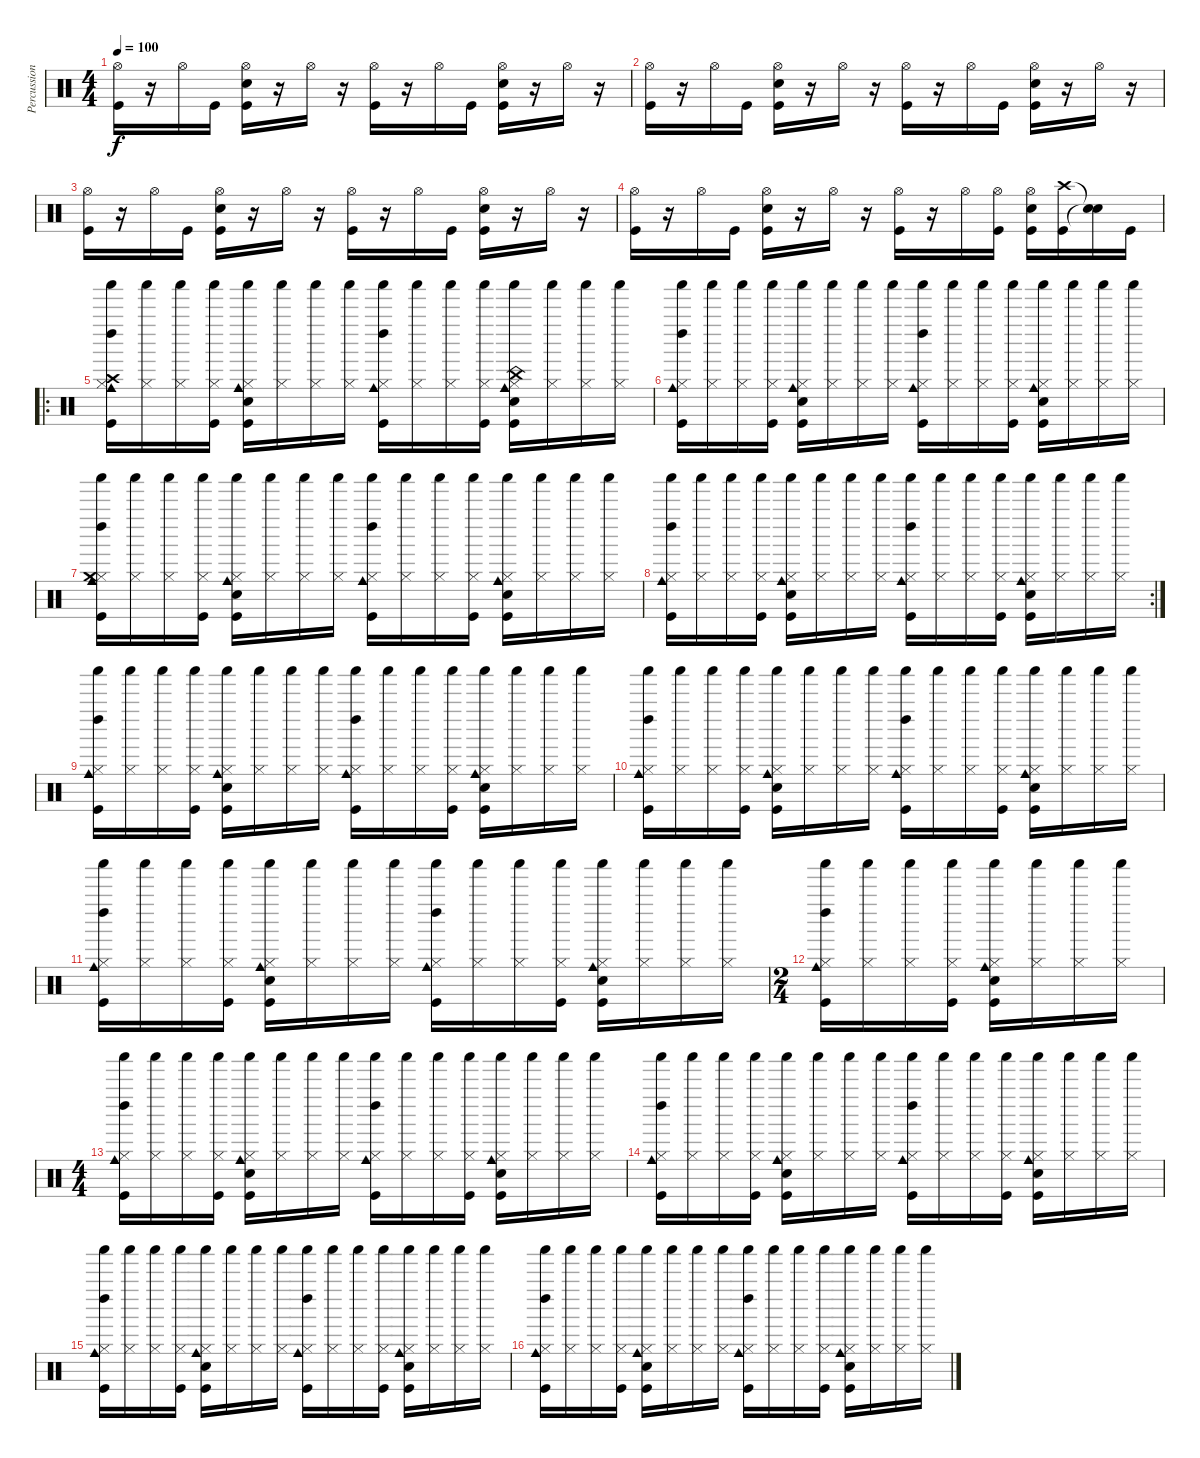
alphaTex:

\track ("Percussions" "Percussion") {instrument percussion}
\staff {score}
\articulation defaults
\ts (4 4)
\tempo 100
\clef neutral
\ks c
("Hi-Hat (open)" "Kick (hit)").16{dy f} r.16 "Hi-Hat (open)".16 "Kick (hit)".16 ("Hi-Hat (open)" "Electric Snare (hit)" "Kick (hit)").16 r.16 "Hi-Hat (open)".16 r.16 ("Hi-Hat (open)" "Kick (hit)").16 r.16 "Hi-Hat (open)".16 "Kick (hit)".16 ("Hi-Hat (open)" "Electric Snare (hit)" "Kick (hit)").16 r.16 "Hi-Hat (open)".16 r.16 |
("Hi-Hat (open)" "Kick (hit)").16 r.16 "Hi-Hat (open)".16 "Kick (hit)".16 ("Hi-Hat (open)" "Electric Snare (hit)" "Kick (hit)").16 r.16 "Hi-Hat (open)".16 r.16 ("Hi-Hat (open)" "Kick (hit)").16 r.16 "Hi-Hat (open)".16 "Kick (hit)".16 ("Hi-Hat (open)" "Electric Snare (hit)" "Kick (hit)").16 r.16 "Hi-Hat (open)".16 r.16 |
("Hi-Hat (open)" "Kick (hit)").16 r.16 "Hi-Hat (open)".16 "Kick (hit)".16 ("Hi-Hat (open)" "Electric Snare (hit)" "Kick (hit)").16 r.16 "Hi-Hat (open)".16 r.16 ("Hi-Hat (open)" "Kick (hit)").16 r.16 "Hi-Hat (open)".16 "Kick (hit)".16 ("Hi-Hat (open)" "Electric Snare (hit)" "Kick (hit)").16 r.16 "Hi-Hat (open)".16 r.16 |
("Hi-Hat (open)" "Kick (hit)").16 r.16 "Hi-Hat (open)".16 "Kick (hit)".16 ("Hi-Hat (open)" "Electric Snare (hit)" "Kick (hit)").16 r.16 "Hi-Hat (open)".16 r.16 ("Hi-Hat (open)" "Kick (hit)").16 r.16 "Hi-Hat (open)".16 ("Hi-Hat (open)" "Kick (hit)").16 ("Hi-Hat (open)" "Electric Snare (hit)" "Kick (hit)").16 ("Crash high (hit)" "Kick (hit)").16 ("Snare (hit)"{t} "Snare (hit)"{t}).16 "Kick (hit)".16 |
\ro
("Hi-Hat (closed)" "Crash high (hit)" "Kick (hit)" "Left Maraca (hit)" "Cowbell medium (hit)" "Shaker (hit)").16 ("Hi-Hat (closed)" "Shaker (hit)").16 ("Hi-Hat (closed)" "Shaker (hit)").16 ("Hi-Hat (closed)" "Kick (hit)" "Shaker (hit)").16 ("Hi-Hat (closed)" "Electric Snare (hit)" "Kick (hit)" "Cowbell medium (hit)" "Shaker (hit)").16 ("Hi-Hat (closed)" "Shaker (hit)").16 ("Hi-Hat (closed)" "Shaker (hit)").16 ("Hi-Hat (closed)" "Shaker (hit)").16 ("Hi-Hat (closed)" "Kick (hit)" "Left Maraca (hit)" "Cowbell medium (hit)" "Shaker (hit)").16 ("Hi-Hat (closed)" "Shaker (hit)").16 ("Hi-Hat (closed)" "Shaker (hit)").16 ("Hi-Hat (closed)" "Kick (hit)" "Shaker (hit)").16 ("Hi-Hat (closed)" "Electric Snare (hit)" "Kick (hit)" "China (hit)" "Cowbell medium (hit)" "Shaker (hit)").16 ("Hi-Hat (closed)" "Shaker (hit)").16 ("Hi-Hat (closed)" "Shaker (hit)").16 ("Hi-Hat (closed)" "Shaker (hit)").16 |
("Hi-Hat (closed)" "Kick (hit)" "Left Maraca (hit)" "Cowbell medium (hit)" "Shaker (hit)").16 ("Hi-Hat (closed)" "Shaker (hit)").16 ("Hi-Hat (closed)" "Shaker (hit)").16 ("Hi-Hat (closed)" "Kick (hit)" "Shaker (hit)").16 ("Hi-Hat (closed)" "Electric Snare (hit)" "Kick (hit)" "Cowbell medium (hit)" "Shaker (hit)").16 ("Hi-Hat (closed)" "Shaker (hit)").16 ("Hi-Hat (closed)" "Shaker (hit)").16 ("Hi-Hat (closed)" "Shaker (hit)").16 ("Hi-Hat (closed)" "Kick (hit)" "Left Maraca (hit)" "Cowbell medium (hit)" "Shaker (hit)").16 ("Hi-Hat (closed)" "Shaker (hit)").16 ("Hi-Hat (closed)" "Shaker (hit)").16 ("Hi-Hat (closed)" "Kick (hit)" "Shaker (hit)").16 ("Hi-Hat (closed)" "Electric Snare (hit)" "Kick (hit)" "Cowbell medium (hit)" "Shaker (hit)").16 ("Hi-Hat (closed)" "Shaker (hit)").16 ("Hi-Hat (closed)" "Shaker (hit)").16 ("Hi-Hat (closed)" "Shaker (hit)").16 |
("Hi-Hat (closed)" "Crash medium (hit)" "Kick (hit)" "Left Maraca (hit)" "Cowbell medium (hit)" "Shaker (hit)").16 ("Hi-Hat (closed)" "Shaker (hit)").16 ("Hi-Hat (closed)" "Shaker (hit)").16 ("Hi-Hat (closed)" "Kick (hit)" "Shaker (hit)").16 ("Hi-Hat (closed)" "Electric Snare (hit)" "Kick (hit)" "Cowbell medium (hit)" "Shaker (hit)").16 ("Hi-Hat (closed)" "Shaker (hit)").16 ("Hi-Hat (closed)" "Shaker (hit)").16 ("Hi-Hat (closed)" "Shaker (hit)").16 ("Hi-Hat (closed)" "Kick (hit)" "Left Maraca (hit)" "Cowbell medium (hit)" "Shaker (hit)").16 ("Hi-Hat (closed)" "Shaker (hit)").16 ("Hi-Hat (closed)" "Shaker (hit)").16 ("Hi-Hat (closed)" "Kick (hit)" "Shaker (hit)").16 ("Hi-Hat (closed)" "Electric Snare (hit)" "Kick (hit)" "Cowbell medium (hit)" "Shaker (hit)").16 ("Hi-Hat (closed)" "Shaker (hit)").16 ("Hi-Hat (closed)" "Shaker (hit)").16 ("Hi-Hat (closed)" "Shaker (hit)").16 |
\rc 2
("Hi-Hat (closed)" "Kick (hit)" "Left Maraca (hit)" "Cowbell medium (hit)" "Shaker (hit)").16 ("Hi-Hat (closed)" "Shaker (hit)").16 ("Hi-Hat (closed)" "Shaker (hit)").16 ("Hi-Hat (closed)" "Kick (hit)" "Shaker (hit)").16 ("Hi-Hat (closed)" "Electric Snare (hit)" "Kick (hit)" "Cowbell medium (hit)" "Shaker (hit)").16 ("Hi-Hat (closed)" "Shaker (hit)").16 ("Hi-Hat (closed)" "Shaker (hit)").16 ("Hi-Hat (closed)" "Shaker (hit)").16 ("Hi-Hat (closed)" "Kick (hit)" "Left Maraca (hit)" "Cowbell medium (hit)" "Shaker (hit)").16 ("Hi-Hat (closed)" "Shaker (hit)").16 ("Hi-Hat (closed)" "Shaker (hit)").16 ("Hi-Hat (closed)" "Kick (hit)" "Shaker (hit)").16 ("Hi-Hat (closed)" "Electric Snare (hit)" "Kick (hit)" "Cowbell medium (hit)" "Shaker (hit)").16 ("Hi-Hat (closed)" "Shaker (hit)").16 ("Hi-Hat (closed)" "Shaker (hit)").16 ("Hi-Hat (closed)" "Shaker (hit)").16 |
("Hi-Hat (closed)" "Kick (hit)" "Left Maraca (hit)" "Cowbell medium (hit)" "Shaker (hit)").16 ("Hi-Hat (closed)" "Shaker (hit)").16 ("Hi-Hat (closed)" "Shaker (hit)").16 ("Hi-Hat (closed)" "Kick (hit)" "Shaker (hit)").16 ("Hi-Hat (closed)" "Electric Snare (hit)" "Kick (hit)" "Cowbell medium (hit)" "Shaker (hit)").16 ("Hi-Hat (closed)" "Shaker (hit)").16 ("Hi-Hat (closed)" "Shaker (hit)").16 ("Hi-Hat (closed)" "Shaker (hit)").16 ("Hi-Hat (closed)" "Kick (hit)" "Left Maraca (hit)" "Cowbell medium (hit)" "Shaker (hit)").16 ("Hi-Hat (closed)" "Shaker (hit)").16 ("Hi-Hat (closed)" "Shaker (hit)").16 ("Hi-Hat (closed)" "Kick (hit)" "Shaker (hit)").16 ("Hi-Hat (closed)" "Electric Snare (hit)" "Kick (hit)" "Cowbell medium (hit)" "Shaker (hit)").16 ("Hi-Hat (closed)" "Shaker (hit)").16 ("Hi-Hat (closed)" "Shaker (hit)").16 ("Hi-Hat (closed)" "Shaker (hit)").16 |
("Hi-Hat (closed)" "Kick (hit)" "Left Maraca (hit)" "Cowbell medium (hit)" "Shaker (hit)").16 ("Hi-Hat (closed)" "Shaker (hit)").16 ("Hi-Hat (closed)" "Shaker (hit)").16 ("Hi-Hat (closed)" "Kick (hit)" "Shaker (hit)").16 ("Hi-Hat (closed)" "Electric Snare (hit)" "Kick (hit)" "Cowbell medium (hit)" "Shaker (hit)").16 ("Hi-Hat (closed)" "Shaker (hit)").16 ("Hi-Hat (closed)" "Shaker (hit)").16 ("Hi-Hat (closed)" "Shaker (hit)").16 ("Hi-Hat (closed)" "Kick (hit)" "Left Maraca (hit)" "Cowbell medium (hit)" "Shaker (hit)").16 ("Hi-Hat (closed)" "Shaker (hit)").16 ("Hi-Hat (closed)" "Shaker (hit)").16 ("Hi-Hat (closed)" "Kick (hit)" "Shaker (hit)").16 ("Hi-Hat (closed)" "Electric Snare (hit)" "Kick (hit)" "Cowbell medium (hit)" "Shaker (hit)").16 ("Hi-Hat (closed)" "Shaker (hit)").16 ("Hi-Hat (closed)" "Shaker (hit)").16 ("Hi-Hat (closed)" "Shaker (hit)").16 |
("Hi-Hat (closed)" "Kick (hit)" "Left Maraca (hit)" "Cowbell medium (hit)" "Shaker (hit)").16 ("Hi-Hat (closed)" "Shaker (hit)").16 ("Hi-Hat (closed)" "Shaker (hit)").16 ("Hi-Hat (closed)" "Kick (hit)" "Shaker (hit)").16 ("Hi-Hat (closed)" "Electric Snare (hit)" "Kick (hit)" "Cowbell medium (hit)" "Shaker (hit)").16 ("Hi-Hat (closed)" "Shaker (hit)").16 ("Hi-Hat (closed)" "Shaker (hit)").16 ("Hi-Hat (closed)" "Shaker (hit)").16 ("Hi-Hat (closed)" "Kick (hit)" "Left Maraca (hit)" "Cowbell medium (hit)" "Shaker (hit)").16 ("Hi-Hat (closed)" "Shaker (hit)").16 ("Hi-Hat (closed)" "Shaker (hit)").16 ("Hi-Hat (closed)" "Kick (hit)" "Shaker (hit)").16 ("Hi-Hat (closed)" "Electric Snare (hit)" "Kick (hit)" "Cowbell medium (hit)" "Shaker (hit)").16 ("Hi-Hat (closed)" "Shaker (hit)").16 ("Hi-Hat (closed)" "Shaker (hit)").16 ("Hi-Hat (closed)" "Shaker (hit)").16 |
\ts (2 4)
("Hi-Hat (closed)" "Kick (hit)" "Left Maraca (hit)" "Cowbell medium (hit)" "Shaker (hit)").16 ("Hi-Hat (closed)" "Shaker (hit)").16 ("Hi-Hat (closed)" "Shaker (hit)").16 ("Hi-Hat (closed)" "Kick (hit)" "Shaker (hit)").16 ("Hi-Hat (closed)" "Electric Snare (hit)" "Kick (hit)" "Cowbell medium (hit)" "Shaker (hit)").16 ("Hi-Hat (closed)" "Shaker (hit)").16 ("Hi-Hat (closed)" "Shaker (hit)").16 ("Hi-Hat (closed)" "Shaker (hit)").16 |
\ts (4 4)
("Hi-Hat (closed)" "Kick (hit)" "Left Maraca (hit)" "Cowbell medium (hit)" "Shaker (hit)").16 ("Hi-Hat (closed)" "Shaker (hit)").16 ("Hi-Hat (closed)" "Shaker (hit)").16 ("Hi-Hat (closed)" "Kick (hit)" "Shaker (hit)").16 ("Hi-Hat (closed)" "Electric Snare (hit)" "Kick (hit)" "Cowbell medium (hit)" "Shaker (hit)").16 ("Hi-Hat (closed)" "Shaker (hit)").16 ("Hi-Hat (closed)" "Shaker (hit)").16 ("Hi-Hat (closed)" "Shaker (hit)").16 ("Hi-Hat (closed)" "Kick (hit)" "Left Maraca (hit)" "Cowbell medium (hit)" "Shaker (hit)").16 ("Hi-Hat (closed)" "Shaker (hit)").16 ("Hi-Hat (closed)" "Shaker (hit)").16 ("Hi-Hat (closed)" "Kick (hit)" "Shaker (hit)").16 ("Hi-Hat (closed)" "Electric Snare (hit)" "Kick (hit)" "Cowbell medium (hit)" "Shaker (hit)").16 ("Hi-Hat (closed)" "Shaker (hit)").16 ("Hi-Hat (closed)" "Shaker (hit)").16 ("Hi-Hat (closed)" "Shaker (hit)").16 |
("Hi-Hat (closed)" "Kick (hit)" "Left Maraca (hit)" "Cowbell medium (hit)" "Shaker (hit)").16 ("Hi-Hat (closed)" "Shaker (hit)").16 ("Hi-Hat (closed)" "Shaker (hit)").16 ("Hi-Hat (closed)" "Kick (hit)" "Shaker (hit)").16 ("Hi-Hat (closed)" "Electric Snare (hit)" "Kick (hit)" "Cowbell medium (hit)" "Shaker (hit)").16 ("Hi-Hat (closed)" "Shaker (hit)").16 ("Hi-Hat (closed)" "Shaker (hit)").16 ("Hi-Hat (closed)" "Shaker (hit)").16 ("Hi-Hat (closed)" "Kick (hit)" "Left Maraca (hit)" "Cowbell medium (hit)" "Shaker (hit)").16 ("Hi-Hat (closed)" "Shaker (hit)").16 ("Hi-Hat (closed)" "Shaker (hit)").16 ("Hi-Hat (closed)" "Kick (hit)" "Shaker (hit)").16 ("Hi-Hat (closed)" "Electric Snare (hit)" "Kick (hit)" "Cowbell medium (hit)" "Shaker (hit)").16 ("Hi-Hat (closed)" "Shaker (hit)").16 ("Hi-Hat (closed)" "Shaker (hit)").16 ("Hi-Hat (closed)" "Shaker (hit)").16 |
("Hi-Hat (closed)" "Kick (hit)" "Left Maraca (hit)" "Cowbell medium (hit)" "Shaker (hit)").16 ("Hi-Hat (closed)" "Shaker (hit)").16 ("Hi-Hat (closed)" "Shaker (hit)").16 ("Hi-Hat (closed)" "Kick (hit)" "Shaker (hit)").16 ("Hi-Hat (closed)" "Electric Snare (hit)" "Kick (hit)" "Cowbell medium (hit)" "Shaker (hit)").16 ("Hi-Hat (closed)" "Shaker (hit)").16 ("Hi-Hat (closed)" "Shaker (hit)").16 ("Hi-Hat (closed)" "Shaker (hit)").16 ("Hi-Hat (closed)" "Kick (hit)" "Left Maraca (hit)" "Cowbell medium (hit)" "Shaker (hit)").16 ("Hi-Hat (closed)" "Shaker (hit)").16 ("Hi-Hat (closed)" "Shaker (hit)").16 ("Hi-Hat (closed)" "Kick (hit)" "Shaker (hit)").16 ("Hi-Hat (closed)" "Electric Snare (hit)" "Kick (hit)" "Cowbell medium (hit)" "Shaker (hit)").16 ("Hi-Hat (closed)" "Shaker (hit)").16 ("Hi-Hat (closed)" "Shaker (hit)").16 ("Hi-Hat (closed)" "Shaker (hit)").16 |
("Hi-Hat (closed)" "Kick (hit)" "Left Maraca (hit)" "Cowbell medium (hit)" "Shaker (hit)").16 ("Hi-Hat (closed)" "Shaker (hit)").16 ("Hi-Hat (closed)" "Shaker (hit)").16 ("Hi-Hat (closed)" "Kick (hit)" "Shaker (hit)").16 ("Hi-Hat (closed)" "Electric Snare (hit)" "Kick (hit)" "Cowbell medium (hit)" "Shaker (hit)").16 ("Hi-Hat (closed)" "Shaker (hit)").16 ("Hi-Hat (closed)" "Shaker (hit)").16 ("Hi-Hat (closed)" "Shaker (hit)").16 ("Hi-Hat (closed)" "Kick (hit)" "Left Maraca (hit)" "Cowbell medium (hit)" "Shaker (hit)").16 ("Hi-Hat (closed)" "Shaker (hit)").16 ("Hi-Hat (closed)" "Shaker (hit)").16 ("Hi-Hat (closed)" "Kick (hit)" "Shaker (hit)").16 ("Hi-Hat (closed)" "Electric Snare (hit)" "Kick (hit)" "Cowbell medium (hit)" "Shaker (hit)").16 ("Hi-Hat (closed)" "Shaker (hit)").16 ("Hi-Hat (closed)" "Shaker (hit)").16 ("Hi-Hat (closed)" "Shaker (hit)").16
